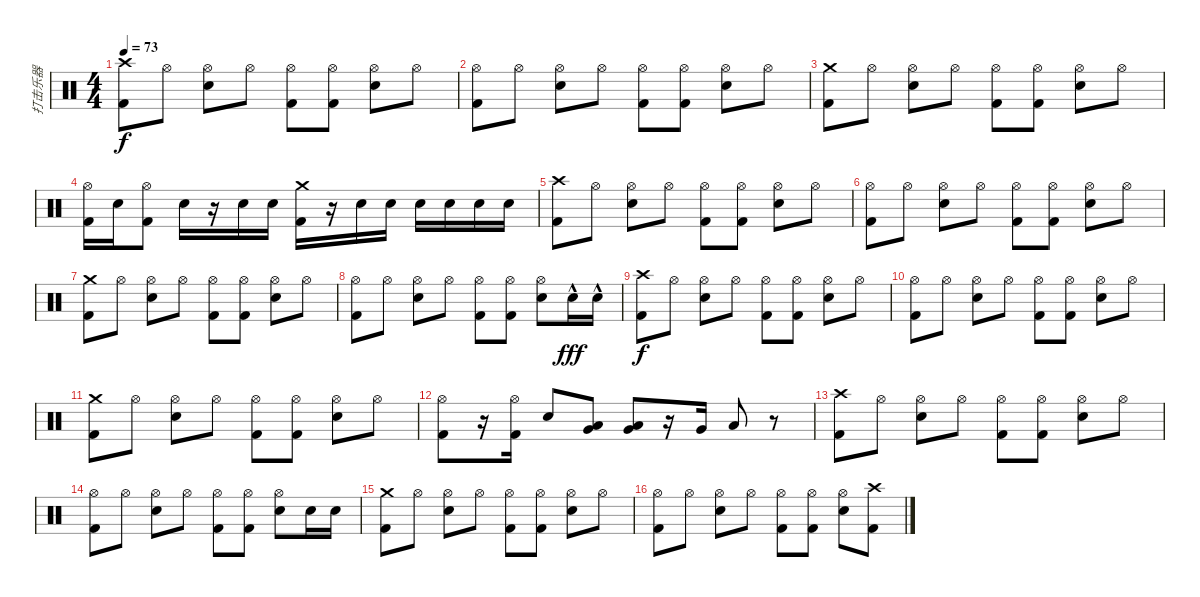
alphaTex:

\track ("打击乐器" "打击乐器") {instrument percussion}
\staff {score}
\articulation defaults
\ts (4 4)
\tempo 73
\clef neutral
\ks c
("Crash high (hit)" "Kick (hit) 2").8{dy f} "Hi-Hat (open)".8 ("Hi-Hat (open)" "Electric Snare (hit)").8 "Hi-Hat (open)".8 ("Hi-Hat (open)" "Kick (hit) 2").8 ("Hi-Hat (open)" "Kick (hit) 2").8 ("Hi-Hat (open)" "Electric Snare (hit)").8 "Hi-Hat (open)".8 |
("Hi-Hat (open)" "Kick (hit) 2").8 "Hi-Hat (open)".8 ("Hi-Hat (open)" "Electric Snare (hit)").8 "Hi-Hat (open)".8 ("Hi-Hat (open)" "Kick (hit) 2").8 ("Hi-Hat (open)" "Kick (hit) 2").8 ("Hi-Hat (open)" "Electric Snare (hit)").8 "Hi-Hat (open)".8 |
("Crash medium (hit)" "Kick (hit) 2").8 "Hi-Hat (open)".8 ("Hi-Hat (open)" "Electric Snare (hit)").8 "Hi-Hat (open)".8 ("Hi-Hat (open)" "Kick (hit) 2").8 ("Hi-Hat (open)" "Kick (hit) 2").8 ("Hi-Hat (open)" "Electric Snare (hit)").8 "Hi-Hat (open)".8 |
("Hi-Hat (open)" "Kick (hit) 2").16 "Electric Snare (hit)".16 ("Hi-Hat (open)" "Kick (hit) 2").8 "Electric Snare (hit)".16 r.16 "Electric Snare (hit)".16 "Electric Snare (hit)".16 ("Crash medium (hit)" "Kick (hit) 2").16 r.16 "Electric Snare (hit)".16 "Electric Snare (hit)".16 "Electric Snare (hit)".16 "Electric Snare (hit)".16 "Electric Snare (hit)".16 "Electric Snare (hit)".16 |
("Crash high (hit)" "Kick (hit) 2").8 "Hi-Hat (open)".8 ("Hi-Hat (open)" "Electric Snare (hit)").8 "Hi-Hat (open)".8 ("Hi-Hat (open)" "Kick (hit) 2").8 ("Hi-Hat (open)" "Kick (hit) 2").8 ("Hi-Hat (open)" "Electric Snare (hit)").8 "Hi-Hat (open)".8 |
("Hi-Hat (open)" "Kick (hit) 2").8 "Hi-Hat (open)".8 ("Hi-Hat (open)" "Electric Snare (hit)").8 "Hi-Hat (open)".8 ("Hi-Hat (open)" "Kick (hit) 2").8 ("Hi-Hat (open)" "Kick (hit) 2").8 ("Hi-Hat (open)" "Electric Snare (hit)").8 "Hi-Hat (open)".8 |
("Crash medium (hit)" "Kick (hit) 2").8 "Hi-Hat (open)".8 ("Hi-Hat (open)" "Electric Snare (hit)").8 "Hi-Hat (open)".8 ("Hi-Hat (open)" "Kick (hit) 2").8 ("Hi-Hat (open)" "Kick (hit) 2").8 ("Hi-Hat (open)" "Electric Snare (hit)").8 "Hi-Hat (open)".8 |
("Hi-Hat (open)" "Kick (hit) 2").8 "Hi-Hat (open)".8 ("Hi-Hat (open)" "Electric Snare (hit)").8 "Hi-Hat (open)".8 ("Hi-Hat (open)" "Kick (hit) 2").8 ("Hi-Hat (open)" "Kick (hit) 2").8 ("Hi-Hat (open)" "Electric Snare (hit)").8 "Electric Snare (hit)"{hac}.16{dy fff} "Electric Snare (hit)"{hac}.16 |
("Crash high (hit)" "Kick (hit) 2").8{dy f} "Hi-Hat (open)".8 ("Hi-Hat (open)" "Electric Snare (hit)").8 "Hi-Hat (open)".8 ("Hi-Hat (open)" "Kick (hit) 2").8 ("Hi-Hat (open)" "Kick (hit) 2").8 ("Hi-Hat (open)" "Electric Snare (hit)").8 "Hi-Hat (open)".8 |
("Hi-Hat (open)" "Kick (hit) 2").8 "Hi-Hat (open)".8 ("Hi-Hat (open)" "Electric Snare (hit)").8 "Hi-Hat (open)".8 ("Hi-Hat (open)" "Kick (hit) 2").8 ("Hi-Hat (open)" "Kick (hit) 2").8 ("Hi-Hat (open)" "Electric Snare (hit)").8 "Hi-Hat (open)".8 |
("Crash medium (hit)" "Kick (hit) 2").8 "Hi-Hat (open)".8 ("Hi-Hat (open)" "Electric Snare (hit)").8 "Hi-Hat (open)".8 ("Hi-Hat (open)" "Kick (hit) 2").8 ("Hi-Hat (open)" "Kick (hit) 2").8 ("Hi-Hat (open)" "Electric Snare (hit)").8 "Hi-Hat (open)".8 |
("Hi-Hat (open)" "Kick (hit) 2").8 r.16 ("Hi-Hat (open)" "Kick (hit) 2").16 "Electric Snare (hit)".8 ("Very Low Tom (hit)" "Low Floor Tom (hit)").8 ("Very Low Tom (hit)" "Low Floor Tom (hit)").8 r.16 "Very Low Tom (hit)".16 "Low Floor Tom (hit)".8 r.8 |
("Crash high (hit)" "Kick (hit) 2").8 "Hi-Hat (open)".8 ("Hi-Hat (open)" "Electric Snare (hit)").8 "Hi-Hat (open)".8 ("Hi-Hat (open)" "Kick (hit) 2").8 ("Hi-Hat (open)" "Kick (hit) 2").8 ("Hi-Hat (open)" "Electric Snare (hit)").8 "Hi-Hat (open)".8 |
("Hi-Hat (open)" "Kick (hit) 2").8 "Hi-Hat (open)".8 ("Hi-Hat (open)" "Electric Snare (hit)").8 "Hi-Hat (open)".8 ("Hi-Hat (open)" "Kick (hit) 2").8 ("Hi-Hat (open)" "Kick (hit) 2").8 ("Hi-Hat (open)" "Electric Snare (hit)").8 "Electric Snare (hit)".16 "Electric Snare (hit)".16 |
("Crash medium (hit)" "Kick (hit) 2").8 "Hi-Hat (open)".8 ("Hi-Hat (open)" "Electric Snare (hit)").8 "Hi-Hat (open)".8 ("Hi-Hat (open)" "Kick (hit) 2").8 ("Hi-Hat (open)" "Kick (hit) 2").8 ("Hi-Hat (open)" "Electric Snare (hit)").8 "Hi-Hat (open)".8 |
("Hi-Hat (open)" "Kick (hit) 2").8 "Hi-Hat (open)".8 ("Hi-Hat (open)" "Electric Snare (hit)").8 "Hi-Hat (open)".8 ("Hi-Hat (open)" "Kick (hit) 2").8 ("Hi-Hat (open)" "Kick (hit) 2").8 ("Hi-Hat (open)" "Electric Snare (hit)").8 ("Crash high (hit)" "Kick (hit) 2").8
